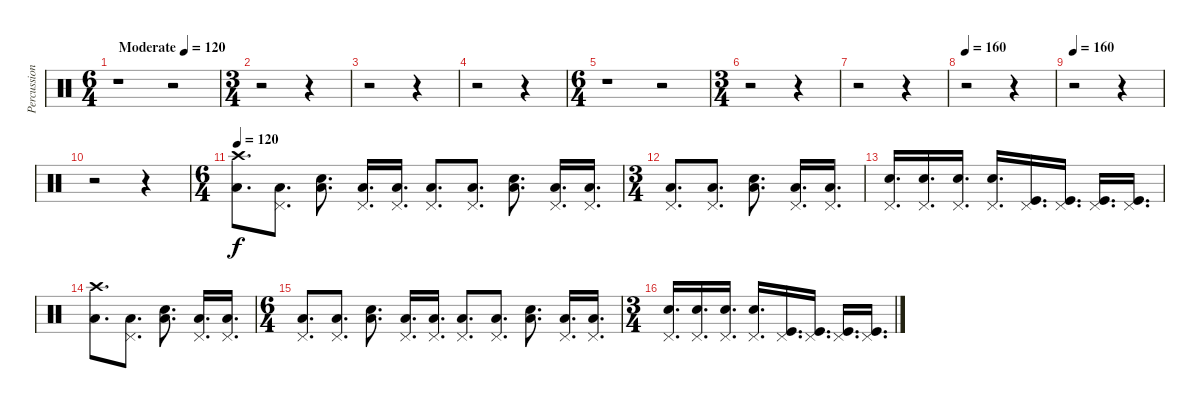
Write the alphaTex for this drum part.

\track ("Percussion" "Percussion") {instrument percussion}
\staff {score}
\articulation defaults
\ts (6 4)
\tempo (120 "Moderate")
\clef neutral
\ks c
r.1{dy f} r.2 |
\ts (3 4)
r.2 r.4 |
r.2 r.4 |
r.2 r.4 |
\ts (6 4)
r.1 r.2 |
\ts (3 4)
r.2 r.4 |
r.2 r.4 |
\tempo 160
r.2 r.4 |
\tempo 160
r.2 r.4 |
r.2 r.4 |
\ts (6 4)
\tempo 120
("Low Floor Tom (hit)" "Crash high (hit)").8{d} ("Low Floor Tom (hit)" "Pedal Hi-Hat (hit)").8{d} ("Low Floor Tom (hit)" "Snare (hit) 2").8{d} ("Low Floor Tom (hit)" "Pedal Hi-Hat (hit)").16{d} ("Low Floor Tom (hit)" "Pedal Hi-Hat (hit)").16{d} ("Low Floor Tom (hit)" "Pedal Hi-Hat (hit)").8{d} ("Low Floor Tom (hit)" "Pedal Hi-Hat (hit)").8{d} ("Low Floor Tom (hit)" "Snare (hit) 2").8{d} ("Low Floor Tom (hit)" "Pedal Hi-Hat (hit)").16{d} ("Low Floor Tom (hit)" "Pedal Hi-Hat (hit)").16{d} |
\ts (3 4)
("Low Floor Tom (hit)" "Pedal Hi-Hat (hit)").8{d} ("Low Floor Tom (hit)" "Pedal Hi-Hat (hit)").8{d} ("Low Floor Tom (hit)" "Snare (hit) 2").8{d} ("Low Floor Tom (hit)" "Pedal Hi-Hat (hit)").16{d} ("Low Floor Tom (hit)" "Pedal Hi-Hat (hit)").16{d} |
("Snare (hit) 2" "Pedal Hi-Hat (hit)").16{d} ("Snare (hit) 2" "Pedal Hi-Hat (hit)").16{d} ("Snare (hit) 2" "Pedal Hi-Hat (hit)").16{d} ("Snare (hit) 2" "Pedal Hi-Hat (hit)").16{d} ("Kick (hit)" "Pedal Hi-Hat (hit)").16{d} ("Kick (hit)" "Pedal Hi-Hat (hit)").16{d} ("Kick (hit)" "Pedal Hi-Hat (hit)").16{d} ("Kick (hit)" "Pedal Hi-Hat (hit)").16{d} |
("Low Floor Tom (hit)" "Crash high (hit)").8{d} ("Low Floor Tom (hit)" "Pedal Hi-Hat (hit)").8{d} ("Low Floor Tom (hit)" "Snare (hit) 2").8{d} ("Low Floor Tom (hit)" "Pedal Hi-Hat (hit)").16{d} ("Low Floor Tom (hit)" "Pedal Hi-Hat (hit)").16{d} |
\ts (6 4)
("Low Floor Tom (hit)" "Pedal Hi-Hat (hit)").8{d} ("Low Floor Tom (hit)" "Pedal Hi-Hat (hit)").8{d} ("Low Floor Tom (hit)" "Snare (hit) 2").8{d} ("Low Floor Tom (hit)" "Pedal Hi-Hat (hit)").16{d} ("Low Floor Tom (hit)" "Pedal Hi-Hat (hit)").16{d} ("Low Floor Tom (hit)" "Pedal Hi-Hat (hit)").8{d} ("Low Floor Tom (hit)" "Pedal Hi-Hat (hit)").8{d} ("Low Floor Tom (hit)" "Snare (hit) 2").8{d} ("Low Floor Tom (hit)" "Pedal Hi-Hat (hit)").16{d} ("Low Floor Tom (hit)" "Pedal Hi-Hat (hit)").16{d} |
\ts (3 4)
("Snare (hit) 2" "Pedal Hi-Hat (hit)").16{d} ("Snare (hit) 2" "Pedal Hi-Hat (hit)").16{d} ("Snare (hit) 2" "Pedal Hi-Hat (hit)").16{d} ("Snare (hit) 2" "Pedal Hi-Hat (hit)").16{d} ("Kick (hit)" "Pedal Hi-Hat (hit)").16{d} ("Kick (hit)" "Pedal Hi-Hat (hit)").16{d} ("Kick (hit)" "Pedal Hi-Hat (hit)").16{d} ("Kick (hit)" "Pedal Hi-Hat (hit)").16{d}
